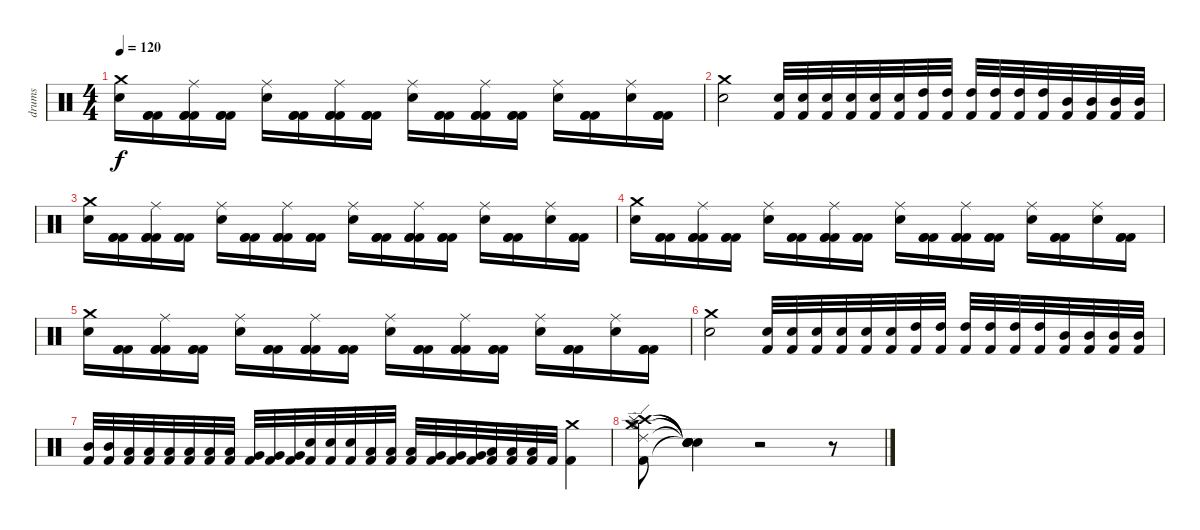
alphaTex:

\track ("drums" "drums") {instrument percussion}
\staff {score}
\articulation defaults
\ts (4 4)
\tempo 120
\clef neutral
\ks c
("Crash medium (hit)" "Electric Snare (hit)").16{dy f} ("Kick (hit) 2" "Kick (hit) 2" "Kick (hit) 2").16 ("Ride (middle)" "Kick (hit) 2" "Kick (hit) 2" "Kick (hit) 2").16 ("Kick (hit) 2" "Kick (hit) 2" "Kick (hit) 2").16 ("Ride (middle)" "Electric Snare (hit)").16 ("Kick (hit) 2" "Kick (hit) 2" "Kick (hit) 2").16 ("Ride (middle)" "Kick (hit) 2" "Kick (hit) 2" "Kick (hit) 2").16 ("Kick (hit) 2" "Kick (hit) 2" "Kick (hit) 2").16 ("Ride (middle)" "Electric Snare (hit)").16 ("Kick (hit) 2" "Kick (hit) 2" "Kick (hit) 2").16 ("Ride (middle)" "Kick (hit) 2" "Kick (hit) 2" "Kick (hit) 2").16 ("Kick (hit) 2" "Kick (hit) 2" "Kick (hit) 2").16 ("Ride (middle)" "Electric Snare (hit)").16 ("Kick (hit) 2" "Kick (hit) 2" "Kick (hit) 2").16 ("Ride (middle)" "Electric Snare (hit)").16 ("Kick (hit) 2" "Kick (hit) 2" "Kick (hit) 2").16 |
("Crash medium (hit)" "Electric Snare (hit)").2 ("Electric Snare (hit)" "Kick (hit) 2").32 ("Electric Snare (hit)" "Kick (hit) 2").32 ("Electric Snare (hit)" "Kick (hit) 2").32 ("Electric Snare (hit)" "Kick (hit) 2").32 ("Electric Snare (hit)" "Kick (hit) 2").32 ("Electric Snare (hit)" "Kick (hit) 2").32 ("High Tom (hit)" "Kick (hit) 2").32 ("High Tom (hit)" "Kick (hit) 2").32 ("High Tom (hit)" "Kick (hit) 2").32 ("High Tom (hit)" "Kick (hit) 2").32 ("High Tom (hit)" "Kick (hit) 2").32 ("High Tom (hit)" "Kick (hit) 2").32 ("Mid Tom (hit)" "Kick (hit) 2").32 ("Mid Tom (hit)" "Kick (hit) 2").32 ("Mid Tom (hit)" "Kick (hit) 2").32 ("Mid Tom (hit)" "Kick (hit) 2").32 |
("Crash medium (hit)" "Electric Snare (hit)").16 ("Kick (hit) 2" "Kick (hit) 2" "Kick (hit) 2").16 ("Ride (middle)" "Kick (hit) 2" "Kick (hit) 2" "Kick (hit) 2").16 ("Kick (hit) 2" "Kick (hit) 2" "Kick (hit) 2").16 ("Ride (middle)" "Electric Snare (hit)").16 ("Kick (hit) 2" "Kick (hit) 2" "Kick (hit) 2").16 ("Ride (middle)" "Kick (hit) 2" "Kick (hit) 2" "Kick (hit) 2").16 ("Kick (hit) 2" "Kick (hit) 2" "Kick (hit) 2").16 ("Ride (middle)" "Electric Snare (hit)").16 ("Kick (hit) 2" "Kick (hit) 2" "Kick (hit) 2").16 ("Ride (middle)" "Kick (hit) 2" "Kick (hit) 2" "Kick (hit) 2").16 ("Kick (hit) 2" "Kick (hit) 2" "Kick (hit) 2").16 ("Ride (middle)" "Electric Snare (hit)").16 ("Kick (hit) 2" "Kick (hit) 2" "Kick (hit) 2").16 ("Ride (middle)" "Electric Snare (hit)").16 ("Kick (hit) 2" "Kick (hit) 2" "Kick (hit) 2").16 |
("Crash medium (hit)" "Electric Snare (hit)").16 ("Kick (hit) 2" "Kick (hit) 2" "Kick (hit) 2").16 ("Ride (middle)" "Kick (hit) 2" "Kick (hit) 2" "Kick (hit) 2").16 ("Kick (hit) 2" "Kick (hit) 2" "Kick (hit) 2").16 ("Ride (middle)" "Electric Snare (hit)").16 ("Kick (hit) 2" "Kick (hit) 2" "Kick (hit) 2").16 ("Ride (middle)" "Kick (hit) 2" "Kick (hit) 2" "Kick (hit) 2").16 ("Kick (hit) 2" "Kick (hit) 2" "Kick (hit) 2").16 ("Ride (middle)" "Electric Snare (hit)").16 ("Kick (hit) 2" "Kick (hit) 2" "Kick (hit) 2").16 ("Ride (middle)" "Kick (hit) 2" "Kick (hit) 2" "Kick (hit) 2").16 ("Kick (hit) 2" "Kick (hit) 2" "Kick (hit) 2").16 ("Ride (middle)" "Electric Snare (hit)").16 ("Kick (hit) 2" "Kick (hit) 2" "Kick (hit) 2").16 ("Ride (middle)" "Electric Snare (hit)").16 ("Kick (hit) 2" "Kick (hit) 2" "Kick (hit) 2").16 |
("Crash medium (hit)" "Electric Snare (hit)").16 ("Kick (hit) 2" "Kick (hit) 2" "Kick (hit) 2").16 ("Ride (middle)" "Kick (hit) 2" "Kick (hit) 2" "Kick (hit) 2").16 ("Kick (hit) 2" "Kick (hit) 2" "Kick (hit) 2").16 ("Ride (middle)" "Electric Snare (hit)").16 ("Kick (hit) 2" "Kick (hit) 2" "Kick (hit) 2").16 ("Ride (middle)" "Kick (hit) 2" "Kick (hit) 2" "Kick (hit) 2").16 ("Kick (hit) 2" "Kick (hit) 2" "Kick (hit) 2").16 ("Ride (middle)" "Electric Snare (hit)").16 ("Kick (hit) 2" "Kick (hit) 2" "Kick (hit) 2").16 ("Ride (middle)" "Kick (hit) 2" "Kick (hit) 2" "Kick (hit) 2").16 ("Kick (hit) 2" "Kick (hit) 2" "Kick (hit) 2").16 ("Ride (middle)" "Electric Snare (hit)").16 ("Kick (hit) 2" "Kick (hit) 2" "Kick (hit) 2").16 ("Ride (middle)" "Electric Snare (hit)").16 ("Kick (hit) 2" "Kick (hit) 2" "Kick (hit) 2").16 |
("Crash medium (hit)" "Electric Snare (hit)").2 ("Electric Snare (hit)" "Kick (hit) 2").32 ("Electric Snare (hit)" "Kick (hit) 2").32 ("Electric Snare (hit)" "Kick (hit) 2").32 ("Electric Snare (hit)" "Kick (hit) 2").32 ("Electric Snare (hit)" "Kick (hit) 2").32 ("Electric Snare (hit)" "Kick (hit) 2").32 ("High Tom (hit)" "Kick (hit) 2").32 ("High Tom (hit)" "Kick (hit) 2").32 ("High Tom (hit)" "Kick (hit) 2").32 ("High Tom (hit)" "Kick (hit) 2").32 ("High Tom (hit)" "Kick (hit) 2").32 ("High Tom (hit)" "Kick (hit) 2").32 ("Mid Tom (hit)" "Kick (hit) 2").32 ("Mid Tom (hit)" "Kick (hit) 2").32 ("Mid Tom (hit)" "Kick (hit) 2").32 ("Mid Tom (hit)" "Kick (hit) 2").32 |
("Mid Tom (hit)" "Kick (hit) 2").32 ("Mid Tom (hit)" "Kick (hit) 2").32 ("Low Tom (hit)" "Kick (hit) 2").32 ("Low Tom (hit)" "Kick (hit) 2").32 ("Low Tom (hit)" "Kick (hit) 2").32 ("Low Tom (hit)" "Kick (hit) 2").32 ("Low Tom (hit)" "Kick (hit) 2").32 ("Low Tom (hit)" "Kick (hit) 2").32 ("Very Low Tom (hit)" "Kick (hit) 2").32 ("Very Low Tom (hit)" "Kick (hit) 2").32 ("Very Low Tom (hit)" "Kick (hit) 2").32 ("Electric Snare (hit)" "Kick (hit) 2").32 ("Electric Snare (hit)" "Kick (hit) 2").32 ("Electric Snare (hit)" "Kick (hit) 2").32 ("Low Tom (hit)" "Kick (hit) 2").32 ("Low Tom (hit)" "Kick (hit) 2").32 ("Low Tom (hit)" "Kick (hit) 2").32 ("Very Low Tom (hit)" "Kick (hit) 2").32 ("Very Low Tom (hit)" "Kick (hit) 2").32 ("Very Low Tom (hit)" "Kick (hit) 2").32 ("Low Floor Tom (hit)" "Kick (hit) 2").32 ("Low Floor Tom (hit)" "Kick (hit) 2").32 ("Low Floor Tom (hit)" "Kick (hit) 2").32 "Kick (hit) 2".32 ("Crash medium (hit)" "Kick (hit) 2").4 |
("Crash medium (hit)" "Crash high (hit)" "Splash (hit)" "Ride (edge) 2" "Hi-Hat (open)" "Kick (hit) 2").8 ("Snare (hit)"{t} "Snare (hit)"{t} "Snare (hit)"{t} "Snare (hit)"{t} "Snare (hit)"{t} "Snare (hit)"{t}).4 r.2 r.8
